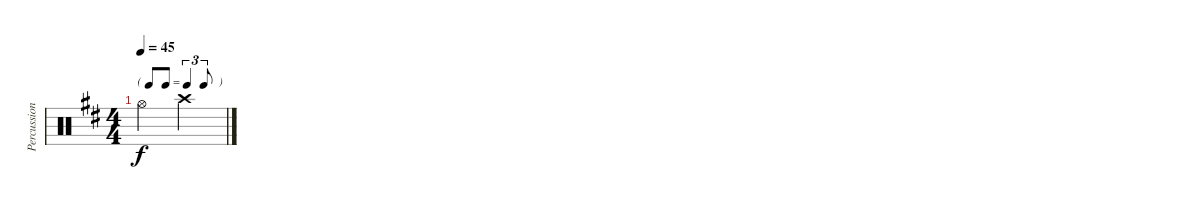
\track ("Percussion" "Percussion") {instrument percussion}
\staff {score}
\articulation defaults
\ts (4 4)
\tf triplet8th
\tempo 45
\clef neutral
\ks d "Hi-Hat (open)".2{dy f} "Crash high (hit)".2
